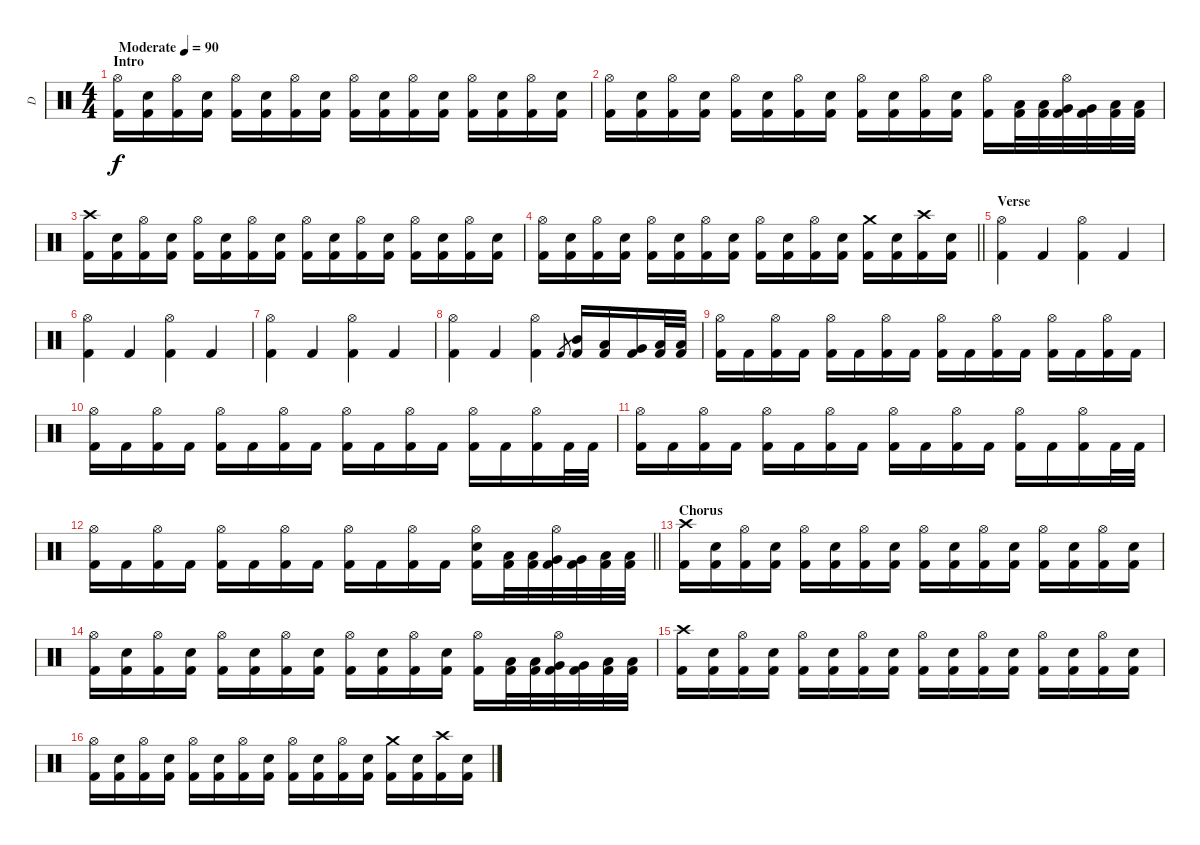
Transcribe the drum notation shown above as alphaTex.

\track ("D" "D") {instrument percussion}
\staff {score}
\articulation defaults
\ts (4 4)
\section ("" "Intro")
\tempo (90 "Moderate")
\clef neutral
\ks c
("Hi-Hat (open)" "Kick (hit) 2").16{dy f} ("Electric Snare (hit)" "Kick (hit) 2").16 ("Hi-Hat (open)" "Kick (hit) 2").16 ("Electric Snare (hit)" "Kick (hit) 2").16 ("Hi-Hat (open)" "Kick (hit) 2").16 ("Electric Snare (hit)" "Kick (hit) 2").16 ("Hi-Hat (open)" "Kick (hit) 2").16 ("Electric Snare (hit)" "Kick (hit) 2").16 ("Hi-Hat (open)" "Kick (hit) 2").16 ("Electric Snare (hit)" "Kick (hit) 2").16 ("Hi-Hat (open)" "Kick (hit) 2").16 ("Electric Snare (hit)" "Kick (hit) 2").16 ("Hi-Hat (open)" "Kick (hit) 2").16 ("Electric Snare (hit)" "Kick (hit) 2").16 ("Hi-Hat (open)" "Kick (hit) 2").16 ("Electric Snare (hit)" "Kick (hit) 2").16 |
("Hi-Hat (open)" "Kick (hit) 2").16 ("Electric Snare (hit)" "Kick (hit) 2").16 ("Hi-Hat (open)" "Kick (hit) 2").16 ("Electric Snare (hit)" "Kick (hit) 2").16 ("Hi-Hat (open)" "Kick (hit) 2").16 ("Electric Snare (hit)" "Kick (hit) 2").16 ("Hi-Hat (open)" "Kick (hit) 2").16 ("Electric Snare (hit)" "Kick (hit) 2").16 ("Hi-Hat (open)" "Kick (hit) 2").16 ("Electric Snare (hit)" "Kick (hit) 2").16 ("Hi-Hat (open)" "Kick (hit) 2").16 ("Electric Snare (hit)" "Kick (hit) 2").16 ("Hi-Hat (open)" "Kick (hit) 2").16 ("Low Tom (hit)" "Kick (hit) 2").32 ("Low Tom (hit)" "Kick (hit) 2").32 ("Hi-Hat (open)" "Very Low Tom (hit)" "Kick (hit) 2").32 ("Very Low Tom (hit)" "Kick (hit) 2").32 ("Low Floor Tom (hit)" "Kick (hit) 2").32 ("Low Floor Tom (hit)" "Kick (hit) 2").32 |
("Crash high (hit)" "Kick (hit) 2").16 ("Electric Snare (hit)" "Kick (hit) 2").16 ("Hi-Hat (open)" "Kick (hit) 2").16 ("Electric Snare (hit)" "Kick (hit) 2").16 ("Hi-Hat (open)" "Kick (hit) 2").16 ("Electric Snare (hit)" "Kick (hit) 2").16 ("Hi-Hat (open)" "Kick (hit) 2").16 ("Electric Snare (hit)" "Kick (hit) 2").16 ("Hi-Hat (open)" "Kick (hit) 2").16 ("Electric Snare (hit)" "Kick (hit) 2").16 ("Hi-Hat (open)" "Kick (hit) 2").16 ("Electric Snare (hit)" "Kick (hit) 2").16 ("Hi-Hat (open)" "Kick (hit) 2").16 ("Electric Snare (hit)" "Kick (hit) 2").16 ("Hi-Hat (open)" "Kick (hit) 2").16 ("Electric Snare (hit)" "Kick (hit) 2").16 |
\barLineRight lightlight
("Hi-Hat (open)" "Kick (hit) 2").16 ("Electric Snare (hit)" "Kick (hit) 2").16 ("Hi-Hat (open)" "Kick (hit) 2").16 ("Electric Snare (hit)" "Kick (hit) 2").16 ("Hi-Hat (open)" "Kick (hit) 2").16 ("Electric Snare (hit)" "Kick (hit) 2").16 ("Hi-Hat (open)" "Kick (hit) 2").16 ("Electric Snare (hit)" "Kick (hit) 2").16 ("Hi-Hat (open)" "Kick (hit) 2").16 ("Electric Snare (hit)" "Kick (hit) 2").16 ("Hi-Hat (open)" "Kick (hit) 2").16 ("Electric Snare (hit)" "Kick (hit) 2").16 ("Crash medium (hit)" "Kick (hit) 2").16 ("Electric Snare (hit)" "Kick (hit) 2").16 ("Crash high (hit)" "Kick (hit) 2").16 ("Electric Snare (hit)" "Kick (hit) 2").16 |
\section ("" "Verse")
("Hi-Hat (open)" "Kick (hit) 2").4 "Kick (hit) 2".4 ("Hi-Hat (open)" "Kick (hit) 2").4 "Kick (hit) 2".4 |
("Hi-Hat (open)" "Kick (hit) 2").4 "Kick (hit) 2".4 ("Hi-Hat (open)" "Kick (hit) 2").4 "Kick (hit) 2".4 |
("Hi-Hat (open)" "Kick (hit) 2").4 "Kick (hit) 2".4 ("Hi-Hat (open)" "Kick (hit) 2").4 "Kick (hit) 2".4 |
("Hi-Hat (open)" "Kick (hit) 2").4 "Kick (hit) 2".4 ("Hi-Hat (open)" "Kick (hit) 2").4 "Kick (hit) 2".8{gr} ("Mid Tom (hit)" "Kick (hit) 2").16 ("Low Tom (hit)" "Kick (hit) 2").16 ("Very Low Tom (hit)" "Kick (hit) 2").16 ("Low Floor Tom (hit)" "Kick (hit) 2").32 ("Low Floor Tom (hit)" "Kick (hit) 2").32 |
("Hi-Hat (open)" "Kick (hit) 2").16 "Kick (hit) 2".16 ("Hi-Hat (open)" "Kick (hit) 2").16 "Kick (hit) 2".16 ("Hi-Hat (open)" "Kick (hit) 2").16 "Kick (hit) 2".16 ("Hi-Hat (open)" "Kick (hit) 2").16 "Kick (hit) 2".16 ("Hi-Hat (open)" "Kick (hit) 2").16 "Kick (hit) 2".16 ("Hi-Hat (open)" "Kick (hit) 2").16 "Kick (hit) 2".16 ("Hi-Hat (open)" "Kick (hit) 2").16 "Kick (hit) 2".16 ("Hi-Hat (open)" "Kick (hit) 2").16 "Kick (hit) 2".16 |
("Hi-Hat (open)" "Kick (hit) 2").16 "Kick (hit) 2".16 ("Hi-Hat (open)" "Kick (hit) 2").16 "Kick (hit) 2".16 ("Hi-Hat (open)" "Kick (hit) 2").16 "Kick (hit) 2".16 ("Hi-Hat (open)" "Kick (hit) 2").16 "Kick (hit) 2".16 ("Hi-Hat (open)" "Kick (hit) 2").16 "Kick (hit) 2".16 ("Hi-Hat (open)" "Kick (hit) 2").16 "Kick (hit) 2".16 ("Hi-Hat (open)" "Kick (hit) 2").16 "Kick (hit) 2".16 ("Hi-Hat (open)" "Kick (hit) 2").16 "Kick (hit) 2".32 "Kick (hit) 2".32 |
("Hi-Hat (open)" "Kick (hit) 2").16 "Kick (hit) 2".16 ("Hi-Hat (open)" "Kick (hit) 2").16 "Kick (hit) 2".16 ("Hi-Hat (open)" "Kick (hit) 2").16 "Kick (hit) 2".16 ("Hi-Hat (open)" "Kick (hit) 2").16 "Kick (hit) 2".16 ("Hi-Hat (open)" "Kick (hit) 2").16 "Kick (hit) 2".16 ("Hi-Hat (open)" "Kick (hit) 2").16 "Kick (hit) 2".16 ("Hi-Hat (open)" "Kick (hit) 2").16 "Kick (hit) 2".16 ("Hi-Hat (open)" "Kick (hit) 2").16 "Kick (hit) 2".32 "Kick (hit) 2".32 |
\barLineRight lightlight
("Hi-Hat (open)" "Kick (hit) 2").16 "Kick (hit) 2".16 ("Hi-Hat (open)" "Kick (hit) 2").16 "Kick (hit) 2".16 ("Hi-Hat (open)" "Kick (hit) 2").16 "Kick (hit) 2".16 ("Hi-Hat (open)" "Kick (hit) 2").16 "Kick (hit) 2".16 ("Hi-Hat (open)" "Kick (hit) 2").16 "Kick (hit) 2".16 ("Hi-Hat (open)" "Kick (hit) 2").16 "Kick (hit) 2".16 ("Hi-Hat (open)" "Snare (hit) 2" "Kick (hit) 2").16 ("Low Floor Tom (hit)" "Kick (hit) 2").32 ("Low Floor Tom (hit)" "Kick (hit) 2").32 ("Hi-Hat (open)" "Very Low Tom (hit)" "Kick (hit) 2").32 ("Very Low Tom (hit)" "Kick (hit) 2").32 ("Low Tom (hit)" "Kick (hit) 2").32 ("Low Tom (hit)" "Kick (hit) 2").32 |
\section ("" "Chorus")
("Crash high (hit)" "Kick (hit) 2").16 ("Electric Snare (hit)" "Kick (hit) 2").16 ("Hi-Hat (open)" "Kick (hit) 2").16 ("Electric Snare (hit)" "Kick (hit) 2").16 ("Hi-Hat (open)" "Kick (hit) 2").16 ("Electric Snare (hit)" "Kick (hit) 2").16 ("Hi-Hat (open)" "Kick (hit) 2").16 ("Electric Snare (hit)" "Kick (hit) 2").16 ("Hi-Hat (open)" "Kick (hit) 2").16 ("Electric Snare (hit)" "Kick (hit) 2").16 ("Hi-Hat (open)" "Kick (hit) 2").16 ("Electric Snare (hit)" "Kick (hit) 2").16 ("Hi-Hat (open)" "Kick (hit) 2").16 ("Electric Snare (hit)" "Kick (hit) 2").16 ("Hi-Hat (open)" "Kick (hit) 2").16 ("Electric Snare (hit)" "Kick (hit) 2").16 |
("Hi-Hat (open)" "Kick (hit) 2").16 ("Electric Snare (hit)" "Kick (hit) 2").16 ("Hi-Hat (open)" "Kick (hit) 2").16 ("Electric Snare (hit)" "Kick (hit) 2").16 ("Hi-Hat (open)" "Kick (hit) 2").16 ("Electric Snare (hit)" "Kick (hit) 2").16 ("Hi-Hat (open)" "Kick (hit) 2").16 ("Electric Snare (hit)" "Kick (hit) 2").16 ("Hi-Hat (open)" "Kick (hit) 2").16 ("Electric Snare (hit)" "Kick (hit) 2").16 ("Hi-Hat (open)" "Kick (hit) 2").16 ("Electric Snare (hit)" "Kick (hit) 2").16 ("Hi-Hat (open)" "Kick (hit) 2").16 ("Low Tom (hit)" "Kick (hit) 2").32 ("Low Tom (hit)" "Kick (hit) 2").32 ("Hi-Hat (open)" "Very Low Tom (hit)" "Kick (hit) 2").32 ("Very Low Tom (hit)" "Kick (hit) 2").32 ("Low Floor Tom (hit)" "Kick (hit) 2").32 ("Low Floor Tom (hit)" "Kick (hit) 2").32 |
("Crash high (hit)" "Kick (hit) 2").16 ("Electric Snare (hit)" "Kick (hit) 2").16 ("Hi-Hat (open)" "Kick (hit) 2").16 ("Electric Snare (hit)" "Kick (hit) 2").16 ("Hi-Hat (open)" "Kick (hit) 2").16 ("Electric Snare (hit)" "Kick (hit) 2").16 ("Hi-Hat (open)" "Kick (hit) 2").16 ("Electric Snare (hit)" "Kick (hit) 2").16 ("Hi-Hat (open)" "Kick (hit) 2").16 ("Electric Snare (hit)" "Kick (hit) 2").16 ("Hi-Hat (open)" "Kick (hit) 2").16 ("Electric Snare (hit)" "Kick (hit) 2").16 ("Hi-Hat (open)" "Kick (hit) 2").16 ("Electric Snare (hit)" "Kick (hit) 2").16 ("Hi-Hat (open)" "Kick (hit) 2").16 ("Electric Snare (hit)" "Kick (hit) 2").16 |
("Hi-Hat (open)" "Kick (hit) 2").16 ("Electric Snare (hit)" "Kick (hit) 2").16 ("Hi-Hat (open)" "Kick (hit) 2").16 ("Electric Snare (hit)" "Kick (hit) 2").16 ("Hi-Hat (open)" "Kick (hit) 2").16 ("Electric Snare (hit)" "Kick (hit) 2").16 ("Hi-Hat (open)" "Kick (hit) 2").16 ("Electric Snare (hit)" "Kick (hit) 2").16 ("Hi-Hat (open)" "Kick (hit) 2").16 ("Electric Snare (hit)" "Kick (hit) 2").16 ("Hi-Hat (open)" "Kick (hit) 2").16 ("Electric Snare (hit)" "Kick (hit) 2").16 ("Crash medium (hit)" "Kick (hit) 2").16 ("Electric Snare (hit)" "Kick (hit) 2").16 ("Crash high (hit)" "Kick (hit) 2").16 ("Electric Snare (hit)" "Kick (hit) 2").16
